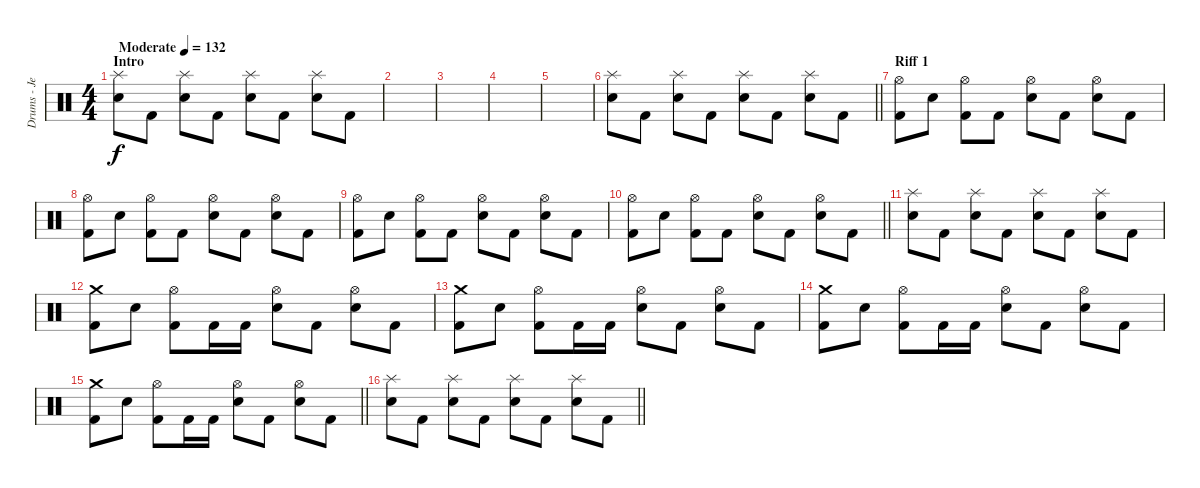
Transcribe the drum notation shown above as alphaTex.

\track ("Drums - Jess Margera" "Drums - Je") {instrument percussion}
\staff {score}
\articulation defaults
\ts (4 4)
\section ("" "Intro")
\tempo (132 "Moderate")
\clef neutral
\ks c
("Splash (hit)" "Electric Snare (hit)").8{dy f} "Kick (hit) 2".8 ("Splash (hit)" "Electric Snare (hit)").8 "Kick (hit) 2".8 ("Splash (hit)" "Electric Snare (hit)").8 "Kick (hit) 2".8 ("Splash (hit)" "Electric Snare (hit)").8 "Kick (hit) 2".8 |
|
|
|
|
\barLineRight lightlight
("Splash (hit)" "Electric Snare (hit)").8{volume 13} "Kick (hit) 2".8 ("Splash (hit)" "Electric Snare (hit)").8 "Kick (hit) 2".8 ("Splash (hit)" "Electric Snare (hit)").8 "Kick (hit) 2".8 ("Splash (hit)" "Electric Snare (hit)").8 "Kick (hit) 2".8 |
\section ("" "Riff 1")
("Hi-Hat (open)" "Kick (hit) 2").8 "Electric Snare (hit)".8 ("Hi-Hat (open)" "Kick (hit) 2").8 "Kick (hit) 2".8 ("Hi-Hat (open)" "Electric Snare (hit)").8 "Kick (hit) 2".8 ("Hi-Hat (open)" "Electric Snare (hit)").8 "Kick (hit) 2".8 |
("Hi-Hat (open)" "Kick (hit) 2").8 "Electric Snare (hit)".8 ("Hi-Hat (open)" "Kick (hit) 2").8 "Kick (hit) 2".8 ("Hi-Hat (open)" "Electric Snare (hit)").8 "Kick (hit) 2".8 ("Hi-Hat (open)" "Electric Snare (hit)").8 "Kick (hit) 2".8 |
("Hi-Hat (open)" "Kick (hit) 2").8 "Electric Snare (hit)".8 ("Hi-Hat (open)" "Kick (hit) 2").8 "Kick (hit) 2".8 ("Hi-Hat (open)" "Electric Snare (hit)").8 "Kick (hit) 2".8 ("Hi-Hat (open)" "Electric Snare (hit)").8 "Kick (hit) 2".8 |
\barLineRight lightlight
("Hi-Hat (open)" "Kick (hit) 2").8 "Electric Snare (hit)".8 ("Hi-Hat (open)" "Kick (hit) 2").8 "Kick (hit) 2".8 ("Hi-Hat (open)" "Electric Snare (hit)").8 "Kick (hit) 2".8 ("Hi-Hat (open)" "Electric Snare (hit)").8 "Kick (hit) 2".8 |
("Splash (hit)" "Electric Snare (hit)").8 "Kick (hit) 2".8 ("Splash (hit)" "Electric Snare (hit)").8 "Kick (hit) 2".8 ("Splash (hit)" "Electric Snare (hit)").8 "Kick (hit) 2".8 ("Splash (hit)" "Electric Snare (hit)").8 "Kick (hit) 2".8 |
("Crash medium (hit)" "Kick (hit) 2").8 "Electric Snare (hit)".8 ("Hi-Hat (open)" "Kick (hit) 2").8 "Kick (hit) 2".16 "Kick (hit) 2".16 ("Hi-Hat (open)" "Electric Snare (hit)").8 "Kick (hit) 2".8 ("Hi-Hat (open)" "Electric Snare (hit)").8 "Kick (hit) 2".8 |
("Crash medium (hit)" "Kick (hit) 2").8 "Electric Snare (hit)".8 ("Hi-Hat (open)" "Kick (hit) 2").8 "Kick (hit) 2".16 "Kick (hit) 2".16 ("Hi-Hat (open)" "Electric Snare (hit)").8 "Kick (hit) 2".8 ("Hi-Hat (open)" "Electric Snare (hit)").8 "Kick (hit) 2".8 |
("Crash medium (hit)" "Kick (hit) 2").8 "Electric Snare (hit)".8 ("Hi-Hat (open)" "Kick (hit) 2").8 "Kick (hit) 2".16 "Kick (hit) 2".16 ("Hi-Hat (open)" "Electric Snare (hit)").8 "Kick (hit) 2".8 ("Hi-Hat (open)" "Electric Snare (hit)").8 "Kick (hit) 2".8 |
\barLineRight lightlight
("Crash medium (hit)" "Kick (hit) 2").8 "Electric Snare (hit)".8 ("Hi-Hat (open)" "Kick (hit) 2").8 "Kick (hit) 2".16 "Kick (hit) 2".16 ("Hi-Hat (open)" "Electric Snare (hit)").8 "Kick (hit) 2".8 ("Hi-Hat (open)" "Electric Snare (hit)").8 "Kick (hit) 2".8 |
\barLineRight lightlight
("Splash (hit)" "Electric Snare (hit)").8 "Kick (hit) 2".8 ("Splash (hit)" "Electric Snare (hit)").8 "Kick (hit) 2".8 ("Splash (hit)" "Electric Snare (hit)").8 "Kick (hit) 2".8 ("Splash (hit)" "Electric Snare (hit)").8 "Kick (hit) 2".8
